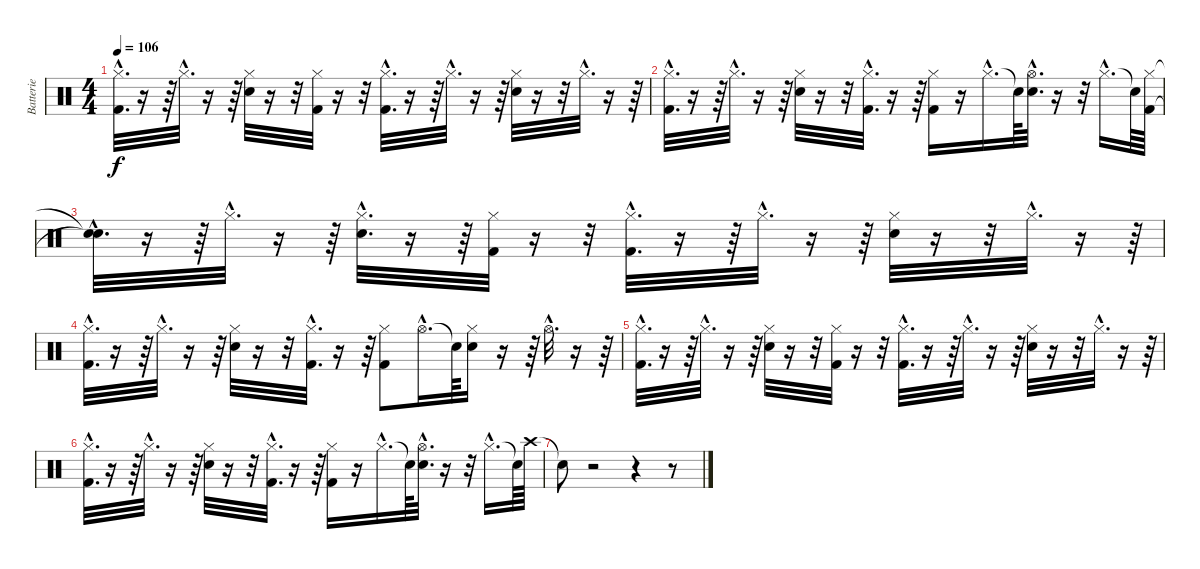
\track ("Batterie" "Batterie") {instrument percussion}
\staff {score}
\articulation defaults
\ts (4 4)
\tempo 106
\clef neutral
\ks c
("Hi-Hat (closed)"{hac} "Kick (hit) 2"{hac}).32{d dy f} r.16 r.64 "Hi-Hat (closed)"{hac}.32{d} r.16 r.64 ("Hi-Hat (closed)" "Snare (hit) 2").32 r.16 r.32 ("Hi-Hat (closed)" "Kick (hit) 2").32 r.16 r.32 ("Hi-Hat (closed)"{hac} "Kick (hit) 2"{hac}).32{d} r.16 r.64 "Hi-Hat (closed)"{hac}.32{d} r.16 r.64 ("Hi-Hat (closed)" "Snare (hit) 2").32 r.16 r.32 "Hi-Hat (closed)"{hac}.32{d} r.16 r.64 |
("Hi-Hat (closed)"{hac} "Kick (hit) 2"{hac}).32{d} r.16 r.64 "Hi-Hat (closed)"{hac}.32{d} r.16 r.64 ("Hi-Hat (closed)" "Snare (hit) 2").32 r.16 r.32 ("Hi-Hat (closed)"{hac} "Kick (hit) 2"{hac}).32{d} r.16 r.64 ("Hi-Hat (closed)" "Kick (hit) 2").16 r.16 "Hi-Hat (closed)"{hac}.16{d} "Snare (hit)"{t}.64 ("Hi-Hat (open)"{hac} "Snare (hit) 2"{hac}).32{d} r.16 r.32 "Hi-Hat (closed)"{hac}.16{d} "Snare (hit)"{t}.64 ("Hi-Hat (closed)" "Kick (hit) 2").64 |
("Snare (hit)"{hac t} "Snare (hit)"{hac t}).32{d} r.16 r.64 "Hi-Hat (closed)"{hac}.32{d} r.16 r.64 ("Hi-Hat (closed)"{hac} "Snare (hit) 2"{hac}).32{d} r.16 r.64 ("Hi-Hat (closed)" "Kick (hit) 2").32 r.16 r.32 ("Hi-Hat (closed)"{hac} "Kick (hit) 2"{hac}).32{d} r.16 r.64 "Hi-Hat (closed)"{hac}.32{d} r.16 r.64 ("Hi-Hat (closed)" "Snare (hit) 2").32 r.16 r.32 "Hi-Hat (closed)"{hac}.32{d} r.16 r.64 |
("Hi-Hat (closed)"{hac} "Kick (hit) 2"{hac}).32{d} r.16 r.64 "Hi-Hat (closed)"{hac}.32{d} r.16 r.64 ("Hi-Hat (closed)" "Snare (hit) 2").32 r.16 r.32 ("Hi-Hat (closed)"{hac} "Kick (hit) 2"{hac}).32{d} r.16 r.64 ("Hi-Hat (closed)" "Kick (hit) 2").8 "Hi-Hat (open)"{hac}.16{d} "Snare (hit)"{t}.64 ("Hi-Hat (closed)" "Snare (hit) 2").16 r.16 r.64 "Hi-Hat (open)"{hac}.32{d} r.16 r.64 |
("Hi-Hat (closed)"{hac} "Kick (hit) 2"{hac}).32{d} r.16 r.64 "Hi-Hat (closed)"{hac}.32{d} r.16 r.64 ("Hi-Hat (closed)" "Snare (hit) 2").32 r.16 r.32 ("Hi-Hat (closed)" "Kick (hit) 2").32 r.16 r.32 ("Hi-Hat (closed)"{hac} "Kick (hit) 2"{hac}).32{d} r.16 r.64 "Hi-Hat (closed)"{hac}.32{d} r.16 r.64 ("Hi-Hat (closed)" "Snare (hit) 2").32 r.16 r.32 "Hi-Hat (closed)"{hac}.32{d} r.16 r.64 |
("Hi-Hat (closed)"{hac} "Kick (hit) 2"{hac}).32{d} r.16 r.64 "Hi-Hat (closed)"{hac}.32{d} r.16 r.64 ("Hi-Hat (closed)" "Snare (hit) 2").32 r.16 r.32 ("Hi-Hat (closed)"{hac} "Kick (hit) 2"{hac}).32{d} r.16 r.64 ("Hi-Hat (closed)" "Kick (hit) 2").16 r.16 "Hi-Hat (closed)"{hac}.16{d} "Snare (hit)"{t}.64 ("Hi-Hat (open)"{hac} "Snare (hit) 2"{hac}).32{d} r.16 r.32 "Hi-Hat (closed)"{hac}.16{d} "Snare (hit)"{t}.64 "Crash high (hit)".64 |
"Snare (hit)"{t}.8 r.2 r.4 r.8
